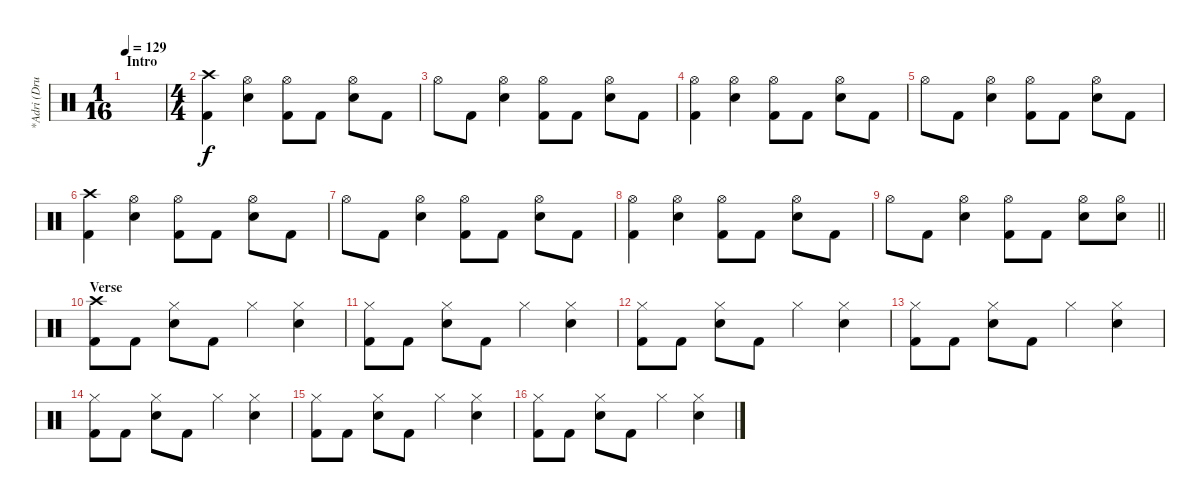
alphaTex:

\track ("*Adri (Drum)" "*Adri (Dru") {instrument percussion}
\staff {score}
\articulation defaults
\ts (1 16)
\section ("" "Intro")
\tempo 129
\clef neutral
\ks c
|
\ts (4 4)
("Crash high (hit)" "Kick (hit) 2").4 ("Hi-Hat (open)" "Snare (hit) 2").4 ("Hi-Hat (open)" "Kick (hit) 2").8 "Kick (hit) 2".8 ("Hi-Hat (open)" "Snare (hit) 2").8 "Kick (hit) 2".8 |
"Hi-Hat (open)".8 "Kick (hit) 2".8 ("Hi-Hat (open)" "Snare (hit) 2").4 ("Hi-Hat (open)" "Kick (hit) 2").8 "Kick (hit) 2".8 ("Hi-Hat (open)" "Snare (hit) 2").8 "Kick (hit) 2".8 |
("Hi-Hat (open)" "Kick (hit) 2").4 ("Hi-Hat (open)" "Snare (hit) 2").4 ("Hi-Hat (open)" "Kick (hit) 2").8 "Kick (hit) 2".8 ("Hi-Hat (open)" "Snare (hit) 2").8 "Kick (hit) 2".8 |
"Hi-Hat (open)".8 "Kick (hit) 2".8 ("Hi-Hat (open)" "Snare (hit) 2").4 ("Hi-Hat (open)" "Kick (hit) 2").8 "Kick (hit) 2".8 ("Hi-Hat (open)" "Snare (hit) 2").8 "Kick (hit) 2".8 |
("Crash high (hit)" "Kick (hit) 2").4 ("Hi-Hat (open)" "Snare (hit) 2").4 ("Hi-Hat (open)" "Kick (hit) 2").8 "Kick (hit) 2".8 ("Hi-Hat (open)" "Snare (hit) 2").8 "Kick (hit) 2".8 |
"Hi-Hat (open)".8 "Kick (hit) 2".8 ("Hi-Hat (open)" "Snare (hit) 2").4 ("Hi-Hat (open)" "Kick (hit) 2").8 "Kick (hit) 2".8 ("Hi-Hat (open)" "Snare (hit) 2").8 "Kick (hit) 2".8 |
("Hi-Hat (open)" "Kick (hit) 2").4 ("Hi-Hat (open)" "Snare (hit) 2").4 ("Hi-Hat (open)" "Kick (hit) 2").8 "Kick (hit) 2".8 ("Hi-Hat (open)" "Snare (hit) 2").8 "Kick (hit) 2".8 |
\barLineRight lightlight "Hi-Hat (open)".8 "Kick (hit) 2".8
("Hi-Hat (open)" "Snare (hit) 2").4 ("Hi-Hat (open)" "Kick (hit) 2").8 "Kick (hit) 2".8 ("Hi-Hat (open)" "Snare (hit) 2").8 ("Hi-Hat (open)" "Snare (hit) 2").8 |
\section ("" "Verse")
("Crash high (hit)" "Kick (hit) 2").8 "Kick (hit) 2".8 ("Hi-Hat (closed)" "Snare (hit) 2").8 "Kick (hit) 2".8 "Hi-Hat (closed)".4 ("Hi-Hat (closed)" "Snare (hit) 2").4 |
("Hi-Hat (closed)" "Kick (hit) 2").8 "Kick (hit) 2".8 ("Hi-Hat (closed)" "Snare (hit) 2").8 "Kick (hit) 2".8 "Hi-Hat (closed)".4 ("Hi-Hat (closed)" "Snare (hit) 2").4 |
("Hi-Hat (closed)" "Kick (hit) 2").8 "Kick (hit) 2".8 ("Hi-Hat (closed)" "Snare (hit) 2").8 "Kick (hit) 2".8 "Hi-Hat (closed)".4 ("Hi-Hat (closed)" "Snare (hit) 2").4 |
("Hi-Hat (closed)" "Kick (hit) 2").8 "Kick (hit) 2".8 ("Hi-Hat (closed)" "Snare (hit) 2").8 "Kick (hit) 2".8 "Hi-Hat (closed)".4 ("Hi-Hat (closed)" "Snare (hit) 2").4 |
("Hi-Hat (closed)" "Kick (hit) 2").8 "Kick (hit) 2".8 ("Hi-Hat (closed)" "Snare (hit) 2").8 "Kick (hit) 2".8 "Hi-Hat (closed)".4 ("Hi-Hat (closed)" "Snare (hit) 2").4 |
("Hi-Hat (closed)" "Kick (hit) 2").8 "Kick (hit) 2".8 ("Hi-Hat (closed)" "Snare (hit) 2").8 "Kick (hit) 2".8 "Hi-Hat (closed)".4 ("Hi-Hat (closed)" "Snare (hit) 2").4 |
("Hi-Hat (closed)" "Kick (hit) 2").8 "Kick (hit) 2".8 ("Hi-Hat (closed)" "Snare (hit) 2").8 "Kick (hit) 2".8 "Hi-Hat (closed)".4 ("Hi-Hat (closed)" "Snare (hit) 2").4
